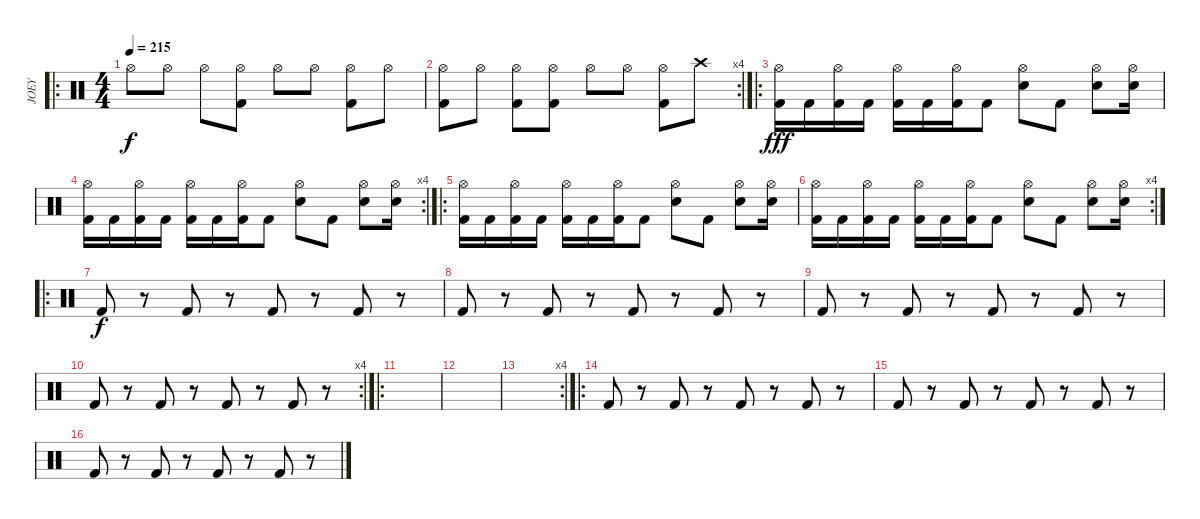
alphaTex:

\track ("JOEY" "JOEY") {instrument percussion}
\staff {score}
\articulation defaults
\ro
\ts (4 4)
\tempo 215
\clef neutral
\ks c "Hi-Hat (open)".8{dy f} "Hi-Hat (open)".8 "Hi-Hat (open)".8
("Kick (hit) 2" "Hi-Hat (open)").8 "Hi-Hat (open)".8 "Hi-Hat (open)".8 ("Kick (hit) 2" "Hi-Hat (open)").8 "Hi-Hat (open)".8 |
\rc 4
("Kick (hit) 2" "Hi-Hat (open)").8 "Hi-Hat (open)".8 ("Kick (hit) 2" "Hi-Hat (open)").8 ("Kick (hit) 2" "Hi-Hat (open)").8 "Hi-Hat (open)".8 "Hi-Hat (open)".8 ("Kick (hit) 2" "Hi-Hat (open)").8 "Crash high (hit)".8 |
\ro
("Hi-Hat (open)" "Kick (hit) 2").16{dy fff} "Kick (hit) 2".16 ("Hi-Hat (open)" "Kick (hit) 2").16 "Kick (hit) 2".16 ("Hi-Hat (open)" "Kick (hit) 2").16 "Kick (hit) 2".16 ("Hi-Hat (open)" "Kick (hit) 2").16 "Kick (hit) 2".8 ("Hi-Hat (open)" "Snare (hit) 2").8 "Kick (hit) 2".8 ("Hi-Hat (open)" "Snare (hit) 2").8 ("Hi-Hat (open)" "Snare (hit) 2").16 |
\rc 4
("Hi-Hat (open)" "Kick (hit) 2").16 "Kick (hit) 2".16 ("Hi-Hat (open)" "Kick (hit) 2").16 "Kick (hit) 2".16 ("Hi-Hat (open)" "Kick (hit) 2").16 "Kick (hit) 2".16 ("Hi-Hat (open)" "Kick (hit) 2").16 "Kick (hit) 2".8 ("Hi-Hat (open)" "Snare (hit) 2").8 "Kick (hit) 2".8 ("Hi-Hat (open)" "Snare (hit) 2").8 ("Hi-Hat (open)" "Snare (hit) 2").16 |
\ro
("Hi-Hat (open)" "Kick (hit) 2").16 "Kick (hit) 2".16 ("Hi-Hat (open)" "Kick (hit) 2").16 "Kick (hit) 2".16 ("Hi-Hat (open)" "Kick (hit) 2").16 "Kick (hit) 2".16 ("Hi-Hat (open)" "Kick (hit) 2").16 "Kick (hit) 2".8 ("Hi-Hat (open)" "Snare (hit) 2").8 "Kick (hit) 2".8 ("Hi-Hat (open)" "Snare (hit) 2").8 ("Hi-Hat (open)" "Snare (hit) 2").16 |
\rc 4
("Hi-Hat (open)" "Kick (hit) 2").16 "Kick (hit) 2".16 ("Hi-Hat (open)" "Kick (hit) 2").16 "Kick (hit) 2".16 ("Hi-Hat (open)" "Kick (hit) 2").16 "Kick (hit) 2".16 ("Hi-Hat (open)" "Kick (hit) 2").16 "Kick (hit) 2".8 ("Hi-Hat (open)" "Snare (hit) 2").8 "Kick (hit) 2".8 ("Hi-Hat (open)" "Snare (hit) 2").8 ("Hi-Hat (open)" "Snare (hit) 2").16 |
\ro "Kick (hit) 2".8{dy f}
r.8 "Kick (hit) 2".8 r.8 "Kick (hit) 2".8 r.8 "Kick (hit) 2".8 r.8 |
"Kick (hit) 2".8 r.8 "Kick (hit) 2".8 r.8 "Kick (hit) 2".8 r.8 "Kick (hit) 2".8 r.8 |
"Kick (hit) 2".8 r.8 "Kick (hit) 2".8 r.8 "Kick (hit) 2".8 r.8 "Kick (hit) 2".8 r.8 |
\rc 4 "Kick (hit) 2".8
r.8 "Kick (hit) 2".8 r.8 "Kick (hit) 2".8 r.8 "Kick (hit) 2".8 r.8 |
\ro
|
|
\rc 4
|
\ro "Kick (hit) 2".8
r.8 "Kick (hit) 2".8 r.8 "Kick (hit) 2".8 r.8 "Kick (hit) 2".8 r.8 |
"Kick (hit) 2".8 r.8 "Kick (hit) 2".8 r.8 "Kick (hit) 2".8 r.8 "Kick (hit) 2".8 r.8 |
"Kick (hit) 2".8 r.8 "Kick (hit) 2".8 r.8 "Kick (hit) 2".8 r.8 "Kick (hit) 2".8 r.8
